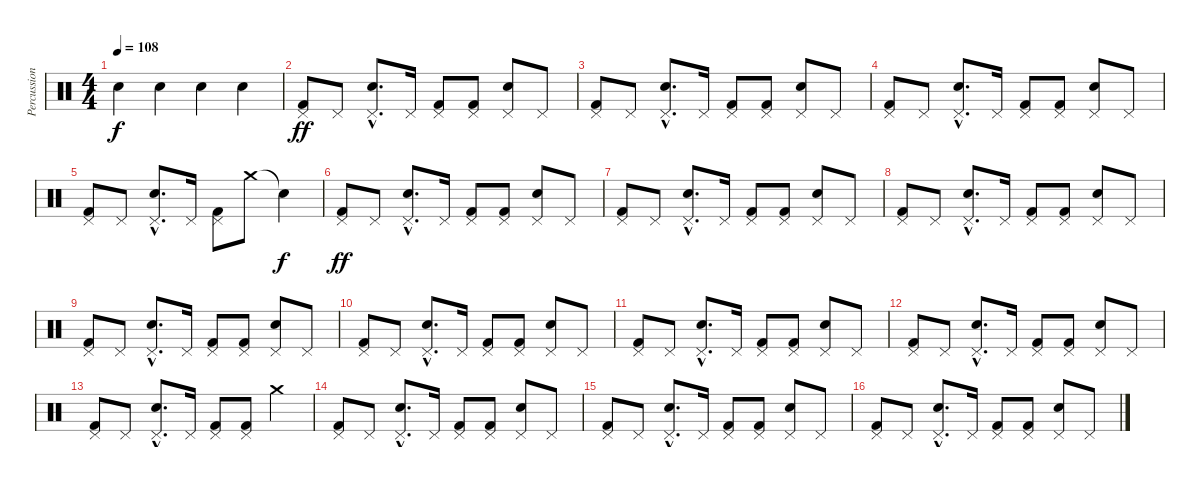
\track ("Percussions" "Percussion") {instrument percussion}
\staff {score}
\articulation defaults
\ts (4 4)
\tempo 108
\clef neutral
\ks c "Hand Clap (hit)".4{dy f} "Hand Clap (hit)".4 "Hand Clap (hit)".4 "Hand Clap (hit)".4
|
("Pedal Hi-Hat (hit)" "Kick (hit) 2").8{dy ff} "Pedal Hi-Hat (hit)".8 ("Pedal Hi-Hat (hit)"{hac} "Electric Snare (hit)"{hac}).8{d} "Pedal Hi-Hat (hit)".16 ("Pedal Hi-Hat (hit)" "Kick (hit) 2").8 ("Pedal Hi-Hat (hit)" "Kick (hit) 2").8 ("Pedal Hi-Hat (hit)" "Electric Snare (hit)").8 "Pedal Hi-Hat (hit)".8 |
("Pedal Hi-Hat (hit)" "Kick (hit) 2").8 "Pedal Hi-Hat (hit)".8 ("Pedal Hi-Hat (hit)"{hac} "Electric Snare (hit)"{hac}).8{d} "Pedal Hi-Hat (hit)".16 ("Pedal Hi-Hat (hit)" "Kick (hit) 2").8 ("Pedal Hi-Hat (hit)" "Kick (hit) 2").8 ("Pedal Hi-Hat (hit)" "Electric Snare (hit)").8 "Pedal Hi-Hat (hit)".8 |
("Pedal Hi-Hat (hit)" "Kick (hit) 2").8 "Pedal Hi-Hat (hit)".8 ("Pedal Hi-Hat (hit)"{hac} "Electric Snare (hit)"{hac}).8{d} "Pedal Hi-Hat (hit)".16 ("Pedal Hi-Hat (hit)" "Kick (hit) 2").8 ("Pedal Hi-Hat (hit)" "Kick (hit) 2").8 ("Pedal Hi-Hat (hit)" "Electric Snare (hit)").8 "Pedal Hi-Hat (hit)".8 |
("Pedal Hi-Hat (hit)" "Kick (hit) 2").8 "Pedal Hi-Hat (hit)".8 ("Pedal Hi-Hat (hit)"{hac} "Electric Snare (hit)"{hac}).8{d} "Pedal Hi-Hat (hit)".16 ("Pedal Hi-Hat (hit)" "Kick (hit) 2").8 "Crash medium (hit)".8 "Snare (hit)"{t}.4{dy f} |
("Pedal Hi-Hat (hit)" "Kick (hit) 2").8{dy ff} "Pedal Hi-Hat (hit)".8 ("Pedal Hi-Hat (hit)"{hac} "Electric Snare (hit)"{hac}).8{d} "Pedal Hi-Hat (hit)".16 ("Pedal Hi-Hat (hit)" "Kick (hit) 2").8 ("Pedal Hi-Hat (hit)" "Kick (hit) 2").8 ("Pedal Hi-Hat (hit)" "Electric Snare (hit)").8 "Pedal Hi-Hat (hit)".8 |
("Pedal Hi-Hat (hit)" "Kick (hit) 2").8 "Pedal Hi-Hat (hit)".8 ("Pedal Hi-Hat (hit)"{hac} "Electric Snare (hit)"{hac}).8{d} "Pedal Hi-Hat (hit)".16 ("Pedal Hi-Hat (hit)" "Kick (hit) 2").8 ("Pedal Hi-Hat (hit)" "Kick (hit) 2").8 ("Pedal Hi-Hat (hit)" "Electric Snare (hit)").8 "Pedal Hi-Hat (hit)".8 |
("Pedal Hi-Hat (hit)" "Kick (hit) 2").8 "Pedal Hi-Hat (hit)".8 ("Pedal Hi-Hat (hit)"{hac} "Electric Snare (hit)"{hac}).8{d} "Pedal Hi-Hat (hit)".16 ("Pedal Hi-Hat (hit)" "Kick (hit) 2").8 ("Pedal Hi-Hat (hit)" "Kick (hit) 2").8 ("Pedal Hi-Hat (hit)" "Electric Snare (hit)").8 "Pedal Hi-Hat (hit)".8 |
("Pedal Hi-Hat (hit)" "Kick (hit) 2").8 "Pedal Hi-Hat (hit)".8 ("Pedal Hi-Hat (hit)"{hac} "Electric Snare (hit)"{hac}).8{d} "Pedal Hi-Hat (hit)".16 ("Pedal Hi-Hat (hit)" "Kick (hit) 2").8 ("Pedal Hi-Hat (hit)" "Kick (hit) 2").8 ("Pedal Hi-Hat (hit)" "Electric Snare (hit)").8 "Pedal Hi-Hat (hit)".8 |
("Pedal Hi-Hat (hit)" "Kick (hit) 2").8 "Pedal Hi-Hat (hit)".8 ("Pedal Hi-Hat (hit)"{hac} "Electric Snare (hit)"{hac}).8{d} "Pedal Hi-Hat (hit)".16 ("Pedal Hi-Hat (hit)" "Kick (hit) 2").8 ("Pedal Hi-Hat (hit)" "Kick (hit) 2").8 ("Pedal Hi-Hat (hit)" "Electric Snare (hit)").8 "Pedal Hi-Hat (hit)".8 |
("Pedal Hi-Hat (hit)" "Kick (hit) 2").8 "Pedal Hi-Hat (hit)".8 ("Pedal Hi-Hat (hit)"{hac} "Electric Snare (hit)"{hac}).8{d} "Pedal Hi-Hat (hit)".16 ("Pedal Hi-Hat (hit)" "Kick (hit) 2").8 ("Pedal Hi-Hat (hit)" "Kick (hit) 2").8 ("Pedal Hi-Hat (hit)" "Electric Snare (hit)").8 "Pedal Hi-Hat (hit)".8 |
("Pedal Hi-Hat (hit)" "Kick (hit) 2").8 "Pedal Hi-Hat (hit)".8 ("Pedal Hi-Hat (hit)"{hac} "Electric Snare (hit)"{hac}).8{d} "Pedal Hi-Hat (hit)".16 ("Pedal Hi-Hat (hit)" "Kick (hit) 2").8 ("Pedal Hi-Hat (hit)" "Kick (hit) 2").8 ("Pedal Hi-Hat (hit)" "Electric Snare (hit)").8 "Pedal Hi-Hat (hit)".8 |
("Pedal Hi-Hat (hit)" "Kick (hit) 2").8 "Pedal Hi-Hat (hit)".8 ("Pedal Hi-Hat (hit)"{hac} "Electric Snare (hit)"{hac}).8{d} "Pedal Hi-Hat (hit)".16 ("Pedal Hi-Hat (hit)" "Kick (hit) 2").8 ("Pedal Hi-Hat (hit)" "Kick (hit) 2").8 "Crash medium (hit)".4 |
("Pedal Hi-Hat (hit)" "Kick (hit) 2").8 "Pedal Hi-Hat (hit)".8 ("Pedal Hi-Hat (hit)"{hac} "Electric Snare (hit)"{hac}).8{d} "Pedal Hi-Hat (hit)".16 ("Pedal Hi-Hat (hit)" "Kick (hit) 2").8 ("Pedal Hi-Hat (hit)" "Kick (hit) 2").8 ("Pedal Hi-Hat (hit)" "Electric Snare (hit)").8 "Pedal Hi-Hat (hit)".8 |
("Pedal Hi-Hat (hit)" "Kick (hit) 2").8 "Pedal Hi-Hat (hit)".8 ("Pedal Hi-Hat (hit)"{hac} "Electric Snare (hit)"{hac}).8{d} "Pedal Hi-Hat (hit)".16 ("Pedal Hi-Hat (hit)" "Kick (hit) 2").8 ("Pedal Hi-Hat (hit)" "Kick (hit) 2").8 ("Pedal Hi-Hat (hit)" "Electric Snare (hit)").8 "Pedal Hi-Hat (hit)".8 |
("Pedal Hi-Hat (hit)" "Kick (hit) 2").8 "Pedal Hi-Hat (hit)".8 ("Pedal Hi-Hat (hit)"{hac} "Electric Snare (hit)"{hac}).8{d} "Pedal Hi-Hat (hit)".16 ("Pedal Hi-Hat (hit)" "Kick (hit) 2").8 ("Pedal Hi-Hat (hit)" "Kick (hit) 2").8 ("Pedal Hi-Hat (hit)" "Electric Snare (hit)").8 "Pedal Hi-Hat (hit)".8
